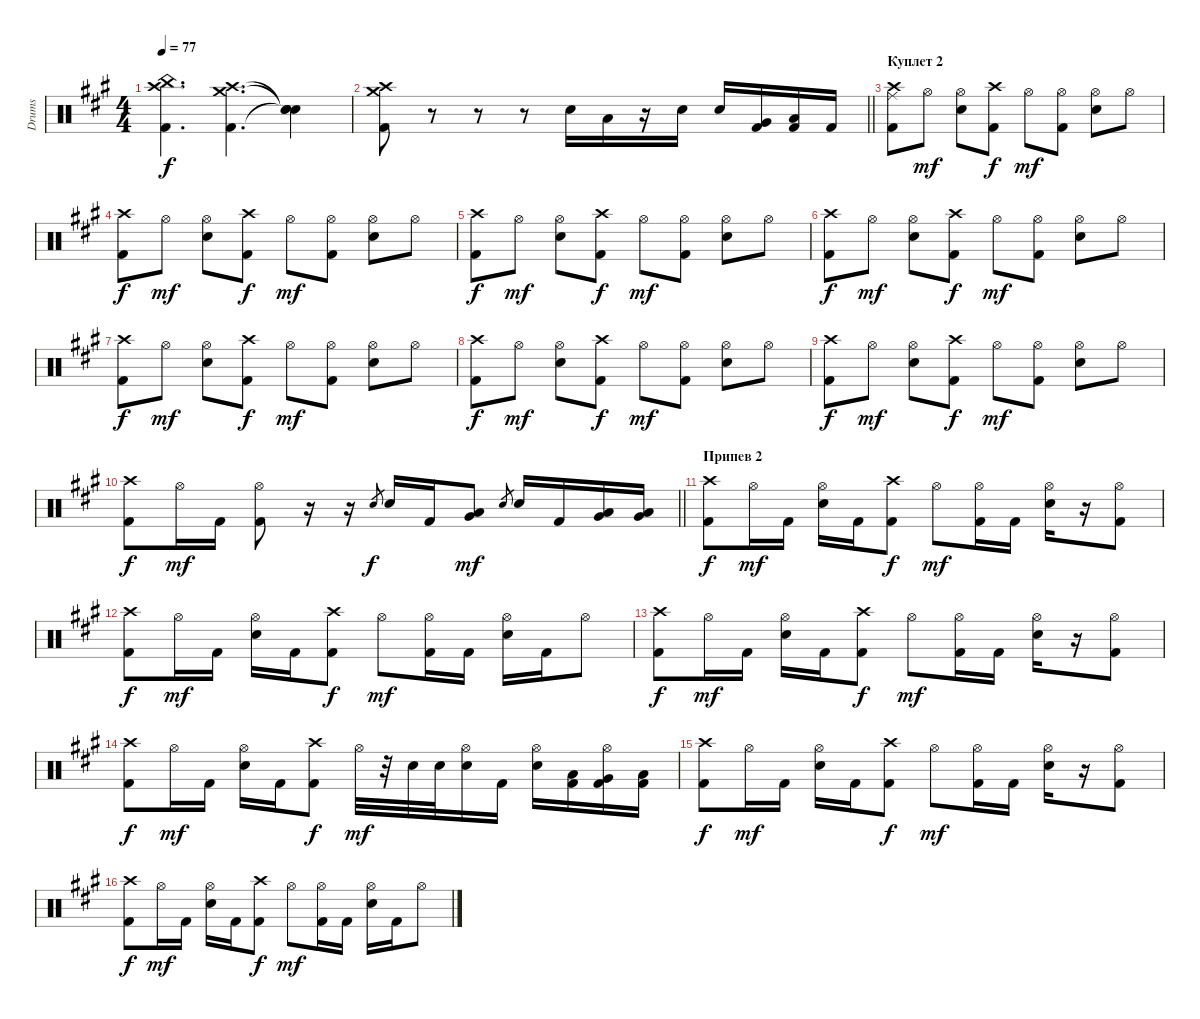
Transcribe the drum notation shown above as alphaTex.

\track ("Drums" "Drums") {instrument percussion}
\staff {score}
\articulation defaults
\ts (4 4)
\tempo 77
\clef neutral
\ks f#minor
("Kick (hit) 2" "Crash high (hit)" "China (hit)").4{d dy f} ("Kick (hit) 2" "Crash medium (hit)" "Crash high (hit)").4{d} ("Snare (hit)"{t} "Snare (hit)"{t} "Snare (hit)"{t}).4 |
\barLineRight lightlight
("Kick (hit) 2" "Crash medium (hit)" "Crash high (hit)").8 r.8 r.8 r.8 "Electric Snare (hit)".16 "Low Floor Tom (hit)".16 r.16 "Electric Snare (hit)".16 "Electric Snare (hit)".16 ("Very Low Tom (hit)" "Kick (hit) 2").16 ("Low Floor Tom (hit)" "Kick (hit) 2").16 "Kick (hit) 2".16 |
\section ("" "Куплет 2")
("Ride (middle)" "Crash high (hit)" "Kick (hit) 2").8 "Hi-Hat (open)".8{dy mf} ("Hi-Hat (open)" "Electric Snare (hit)").8 ("Crash high (hit)" "Kick (hit) 2").8{dy f} "Hi-Hat (open)".8{dy mf} ("Hi-Hat (open)" "Kick (hit) 2").8 ("Hi-Hat (open)" "Electric Snare (hit)").8 "Hi-Hat (open)".8 |
("Crash high (hit)" "Kick (hit) 2").8{dy f} "Hi-Hat (open)".8{dy mf} ("Hi-Hat (open)" "Electric Snare (hit)").8 ("Crash high (hit)" "Kick (hit) 2").8{dy f} "Hi-Hat (open)".8{dy mf} ("Hi-Hat (open)" "Kick (hit) 2").8 ("Hi-Hat (open)" "Electric Snare (hit)").8 "Hi-Hat (open)".8 |
("Crash high (hit)" "Kick (hit) 2").8{dy f} "Hi-Hat (open)".8{dy mf} ("Hi-Hat (open)" "Electric Snare (hit)").8 ("Crash high (hit)" "Kick (hit) 2").8{dy f} "Hi-Hat (open)".8{dy mf} ("Hi-Hat (open)" "Kick (hit) 2").8 ("Hi-Hat (open)" "Electric Snare (hit)").8 "Hi-Hat (open)".8 |
("Crash high (hit)" "Kick (hit) 2").8{dy f} "Hi-Hat (open)".8{dy mf} ("Hi-Hat (open)" "Electric Snare (hit)").8 ("Crash high (hit)" "Kick (hit) 2").8{dy f} "Hi-Hat (open)".8{dy mf} ("Hi-Hat (open)" "Kick (hit) 2").8 ("Hi-Hat (open)" "Electric Snare (hit)").8 "Hi-Hat (open)".8 |
("Crash high (hit)" "Kick (hit) 2").8{dy f} "Hi-Hat (open)".8{dy mf} ("Hi-Hat (open)" "Electric Snare (hit)").8 ("Crash high (hit)" "Kick (hit) 2").8{dy f} "Hi-Hat (open)".8{dy mf} ("Hi-Hat (open)" "Kick (hit) 2").8 ("Hi-Hat (open)" "Electric Snare (hit)").8 "Hi-Hat (open)".8 |
("Crash high (hit)" "Kick (hit) 2").8{dy f} "Hi-Hat (open)".8{dy mf} ("Hi-Hat (open)" "Electric Snare (hit)").8 ("Crash high (hit)" "Kick (hit) 2").8{dy f} "Hi-Hat (open)".8{dy mf} ("Hi-Hat (open)" "Kick (hit) 2").8 ("Hi-Hat (open)" "Electric Snare (hit)").8 "Hi-Hat (open)".8 |
("Crash high (hit)" "Kick (hit) 2").8{dy f} "Hi-Hat (open)".8{dy mf} ("Hi-Hat (open)" "Electric Snare (hit)").8 ("Crash high (hit)" "Kick (hit) 2").8{dy f} "Hi-Hat (open)".8{dy mf} ("Hi-Hat (open)" "Kick (hit) 2").8 ("Hi-Hat (open)" "Electric Snare (hit)").8 "Hi-Hat (open)".8 |
\barLineRight lightlight
("Crash high (hit)" "Kick (hit) 2").8{dy f} "Hi-Hat (open)".16{dy mf} "Kick (hit) 2".16 ("Hi-Hat (open)" "Kick (hit) 2").8 r.16 r.16 "Electric Snare (hit)".8{gr dy f} "Electric Snare (hit)".16 "Kick (hit) 2".16 ("Low Floor Tom (hit)" "Very Low Tom (hit)").8{dy mf} "Electric Snare (hit)".8{gr} "Electric Snare (hit)".16 "Kick (hit) 2".16 ("Low Tom (hit)" "Very Low Tom (hit)").16 ("Very Low Tom (hit)" "Low Floor Tom (hit)").16 |
\section ("" "Припев 2")
("Crash high (hit)" "Kick (hit) 2").8{dy f} "Hi-Hat (open)".16{dy mf} "Kick (hit) 2".16 ("Hi-Hat (open)" "Electric Snare (hit)").16 "Kick (hit) 2".16 ("Crash high (hit)" "Kick (hit) 2").8{dy f} "Hi-Hat (open)".8{dy mf} ("Hi-Hat (open)" "Kick (hit) 2").16 "Kick (hit) 2".16 ("Hi-Hat (open)" "Electric Snare (hit)").16 r.16 ("Hi-Hat (open)" "Kick (hit) 2").8 |
("Crash high (hit)" "Kick (hit) 2").8{dy f} "Hi-Hat (open)".16{dy mf} "Kick (hit) 2".16 ("Hi-Hat (open)" "Electric Snare (hit)").16 "Kick (hit) 2".16 ("Crash high (hit)" "Kick (hit) 2").8{dy f} "Hi-Hat (open)".8{dy mf} ("Hi-Hat (open)" "Kick (hit) 2").16 "Kick (hit) 2".16 ("Hi-Hat (open)" "Electric Snare (hit)").16 "Kick (hit) 2".16 "Hi-Hat (open)".8 |
("Crash high (hit)" "Kick (hit) 2").8{dy f} "Hi-Hat (open)".16{dy mf} "Kick (hit) 2".16 ("Hi-Hat (open)" "Electric Snare (hit)").16 "Kick (hit) 2".16 ("Crash high (hit)" "Kick (hit) 2").8{dy f} "Hi-Hat (open)".8{dy mf} ("Hi-Hat (open)" "Kick (hit) 2").16 "Kick (hit) 2".16 ("Hi-Hat (open)" "Electric Snare (hit)").16 r.16 ("Hi-Hat (open)" "Kick (hit) 2").8 |
("Crash high (hit)" "Kick (hit) 2").8{dy f} "Hi-Hat (open)".16{dy mf} "Kick (hit) 2".16 ("Hi-Hat (open)" "Electric Snare (hit)").16 "Kick (hit) 2".16 ("Crash high (hit)" "Kick (hit) 2").8{dy f} "Hi-Hat (open)".32{dy mf} r.32 "Electric Snare (hit)".32 "Electric Snare (hit)".32 ("Hi-Hat (open)" "Electric Snare (hit)").16 "Kick (hit) 2".16 ("Hi-Hat (open)" "Electric Snare (hit)").16 ("Low Tom (hit)" "Kick (hit) 2").16 ("Hi-Hat (open)" "Very Low Tom (hit)" "Kick (hit) 2").16 ("Low Floor Tom (hit)" "Kick (hit) 2").16 |
("Crash high (hit)" "Kick (hit) 2").8{dy f} "Hi-Hat (open)".16{dy mf} "Kick (hit) 2".16 ("Hi-Hat (open)" "Electric Snare (hit)").16 "Kick (hit) 2".16 ("Crash high (hit)" "Kick (hit) 2").8{dy f} "Hi-Hat (open)".8{dy mf} ("Hi-Hat (open)" "Kick (hit) 2").16 "Kick (hit) 2".16 ("Hi-Hat (open)" "Electric Snare (hit)").16 r.16 ("Hi-Hat (open)" "Kick (hit) 2").8 |
("Crash high (hit)" "Kick (hit) 2").8{dy f} "Hi-Hat (open)".16{dy mf} "Kick (hit) 2".16 ("Hi-Hat (open)" "Electric Snare (hit)").16 "Kick (hit) 2".16 ("Crash high (hit)" "Kick (hit) 2").8{dy f} "Hi-Hat (open)".8{dy mf} ("Hi-Hat (open)" "Kick (hit) 2").16 "Kick (hit) 2".16 ("Hi-Hat (open)" "Electric Snare (hit)").16 "Kick (hit) 2".16 "Hi-Hat (open)".8
